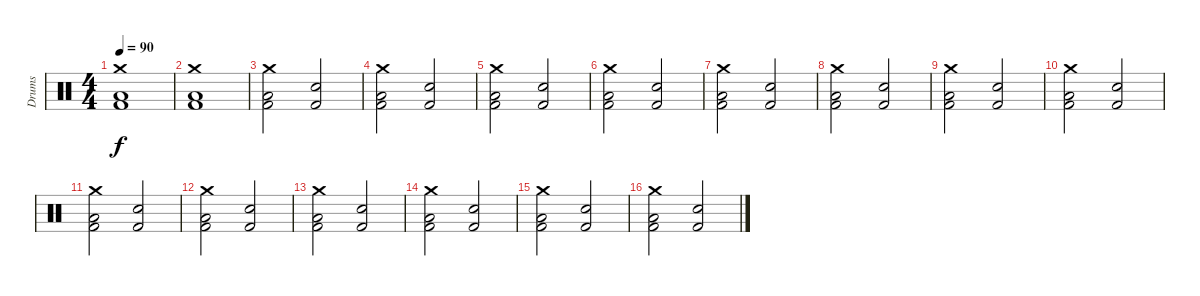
\track ("Drums" "Drums") {instrument percussion}
\staff {score}
\articulation defaults
\ts (4 4)
\tempo 90
\clef neutral
\ks c
("Crash medium (hit)" "Low Floor Tom (hit)" "Kick (hit) 2").1{dy f} |
("Crash medium (hit)" "Low Floor Tom (hit)" "Kick (hit) 2").1 |
("Crash medium (hit)" "Low Floor Tom (hit)" "Kick (hit) 2").2 ("Snare (hit) 2" "Kick (hit) 2").2 |
("Crash medium (hit)" "Low Floor Tom (hit)" "Kick (hit) 2").2 ("Snare (hit) 2" "Kick (hit) 2").2 |
("Crash medium (hit)" "Low Floor Tom (hit)" "Kick (hit) 2").2 ("Snare (hit) 2" "Kick (hit) 2").2 |
("Crash medium (hit)" "Low Floor Tom (hit)" "Kick (hit) 2").2 ("Snare (hit) 2" "Kick (hit) 2").2 |
("Crash medium (hit)" "Low Floor Tom (hit)" "Kick (hit) 2").2 ("Snare (hit) 2" "Kick (hit) 2").2 |
("Crash medium (hit)" "Low Floor Tom (hit)" "Kick (hit) 2").2 ("Snare (hit) 2" "Kick (hit) 2").2 |
("Crash medium (hit)" "Low Floor Tom (hit)" "Kick (hit) 2").2 ("Snare (hit) 2" "Kick (hit) 2").2 |
("Crash medium (hit)" "Low Floor Tom (hit)" "Kick (hit) 2").2 ("Snare (hit) 2" "Kick (hit) 2").2 |
("Crash medium (hit)" "Low Floor Tom (hit)" "Kick (hit) 2").2 ("Electric Snare (hit)" "Kick (hit) 2").2 |
("Crash medium (hit)" "Low Floor Tom (hit)" "Kick (hit) 2").2 ("Electric Snare (hit)" "Kick (hit) 2").2 |
("Crash medium (hit)" "Low Floor Tom (hit)" "Kick (hit) 2").2 ("Electric Snare (hit)" "Kick (hit) 2").2 |
("Crash medium (hit)" "Low Floor Tom (hit)" "Kick (hit) 2").2 ("Electric Snare (hit)" "Kick (hit) 2").2 |
("Crash medium (hit)" "Low Floor Tom (hit)" "Kick (hit) 2").2 ("Electric Snare (hit)" "Kick (hit) 2").2 |
("Crash medium (hit)" "Low Floor Tom (hit)" "Kick (hit) 2").2 ("Electric Snare (hit)" "Kick (hit) 2").2
